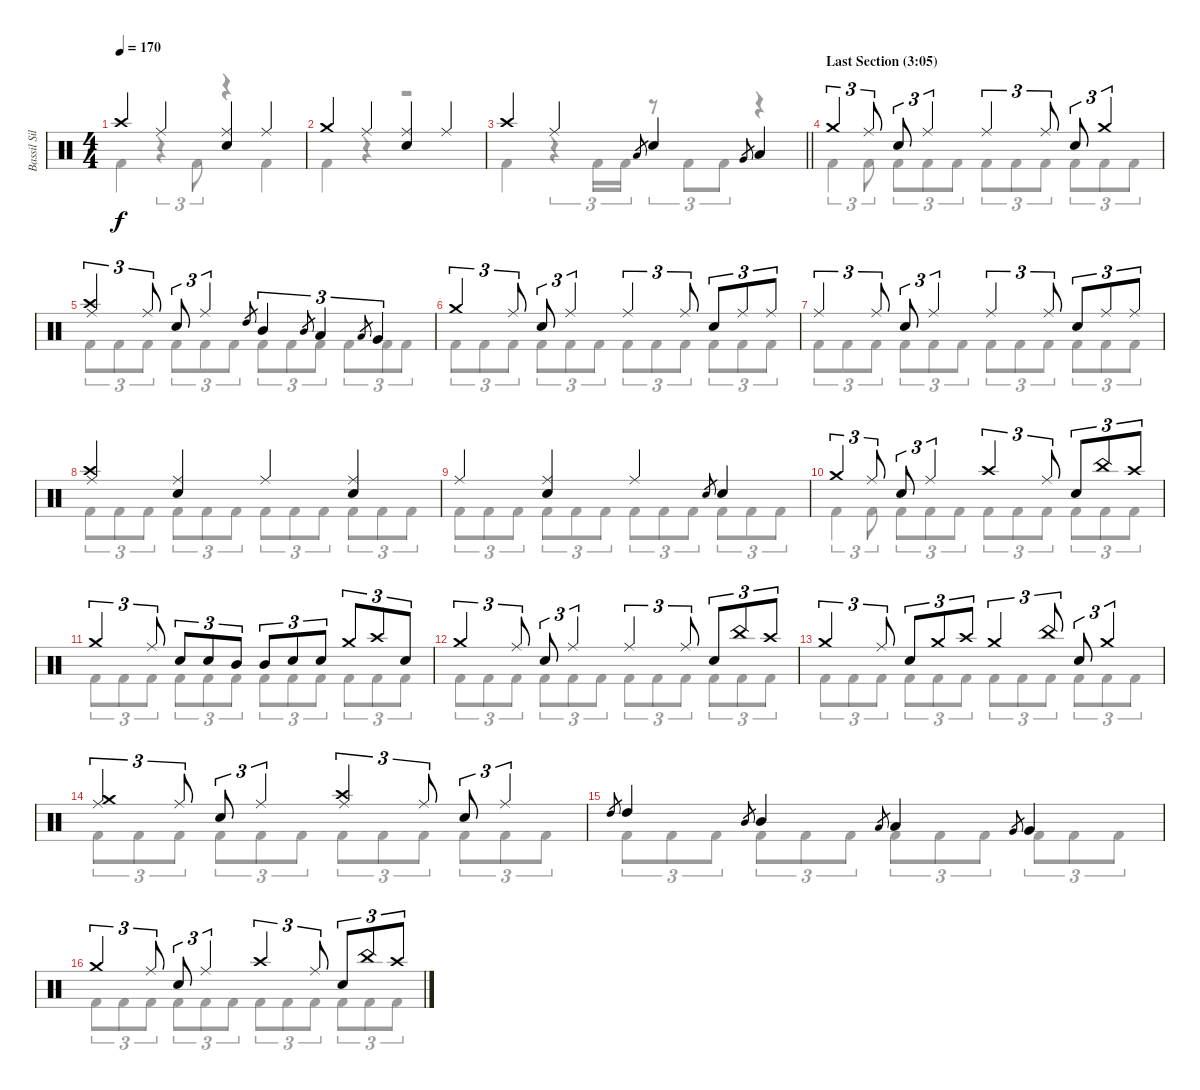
\track ("Bassil Silver-Hajo" "Bassil Sil") {instrument percussion}
\staff {score}
\articulation defaults
\voice
\ts (4 4)
\tempo 170
\clef neutral
\ks c "Crash high (hit)".4{dy f} "Ride (middle)".4
("Ride (middle)" "Snare (hit) 2").4 "Ride (middle)".4 |
"Crash medium (hit)".4 "Ride (middle)".4 ("Ride (middle)" "Snare (hit) 2").4 "Ride (middle)".4 |
\barLineRight lightlight "Crash high (hit)".4 "Ride (middle)".4 "Low Tom (hit)".8{gr} "Snare (hit) 2".4 "Very Low Tom (hit)".8{gr} "Low Floor Tom (hit)".4
|
\section ("" "Last Section (3:05)")
"Crash medium (hit)".4{tu (3 2)} "Ride (middle)".8{tu (3 2)} "Snare (hit) 2".8{tu (3 2)} "Ride (middle)".4{tu (3 2)} "Ride (middle)".4{tu (3 2)} "Ride (middle)".8{tu (3 2)} "Snare (hit) 2".8{tu (3 2)} "Crash medium (hit)".4{tu (3 2)} |
("Crash high (hit)" "Ride (middle)").4{tu (3 2)} "Ride (middle)".8{tu (3 2)} "Snare (hit) 2".8{tu (3 2)} "Ride (middle)".4{tu (3 2)} "High Tom (hit)".8{gr} "Mid Tom (hit)".4{tu (3 2)} "Mid Tom (hit)".8{gr} "Low Tom (hit)".4{tu (3 2)} "Low Tom (hit)".8{gr} "Very Low Tom (hit)".4{tu (3 2)} |
"Crash medium (hit)".4{tu (3 2)} "Ride (middle)".8{tu (3 2)} "Snare (hit) 2".8{tu (3 2)} "Ride (middle)".4{tu (3 2)} "Ride (middle)".4{tu (3 2)} "Ride (middle)".8{tu (3 2)} "Snare (hit) 2".8{tu (3 2)} "Ride (middle)".8{tu (3 2)} "Ride (middle)".8{tu (3 2)} |
"Ride (middle)".4{tu (3 2)} "Ride (middle)".8{tu (3 2)} "Snare (hit) 2".8{tu (3 2)} "Ride (middle)".4{tu (3 2)} "Ride (middle)".4{tu (3 2)} "Ride (middle)".8{tu (3 2)} "Snare (hit) 2".8{tu (3 2)} "Ride (middle)".8{tu (3 2)} "Ride (middle)".8{tu (3 2)} |
("Crash high (hit)" "Ride (middle)").4 ("Ride (middle)" "Snare (hit) 2").4 "Ride (middle)".4 ("Ride (middle)" "Snare (hit) 2").4 |
"Ride (middle)".4 ("Ride (middle)" "Snare (hit) 2").4 "Ride (middle)".4 "Snare (hit) 2".8{gr} "Snare (hit) 2".4 |
"Crash medium (hit)".4{tu (3 2)} "Ride (middle)".8{tu (3 2)} "Snare (hit) 2".8{tu (3 2)} "Ride (middle)".4{tu (3 2)} "Crash high (hit)".4{tu (3 2)} "Ride (middle)".8{tu (3 2)} "Snare (hit) 2".8{tu (3 2)} "China (hit)".8{tu (3 2)} "Crash high (hit)".8{tu (3 2)} |
"Crash medium (hit)".4{tu (3 2)} "Ride (middle)".8{tu (3 2)} "Snare (hit) 2".8{tu (3 2)} "Snare (hit) 2".8{tu (3 2)} "Mid Tom (hit)".8{tu (3 2)} "Mid Tom (hit)".8{tu (3 2)} "Snare (hit) 2".8{tu (3 2)} "Snare (hit) 2".8{tu (3 2)} "Crash medium (hit)".8{tu (3 2)} "Crash high (hit)".8{tu (3 2)} "Snare (hit) 2".8{tu (3 2)} |
"Crash medium (hit)".4{tu (3 2)} "Ride (middle)".8{tu (3 2)} "Snare (hit) 2".8{tu (3 2)} "Ride (middle)".4{tu (3 2)} "Ride (middle)".4{tu (3 2)} "Ride (middle)".8{tu (3 2)} "Snare (hit) 2".8{tu (3 2)} "China (hit)".8{tu (3 2)} "Crash high (hit)".8{tu (3 2)} |
"Crash medium (hit)".4{tu (3 2)} "Ride (middle)".8{tu (3 2)} "Snare (hit) 2".8{tu (3 2)} "Crash medium (hit)".8{tu (3 2)} "Crash high (hit)".8{tu (3 2)} "Crash medium (hit)".4{tu (3 2)} "China (hit)".8{tu (3 2)} "Snare (hit) 2".8{tu (3 2)} "Crash medium (hit)".4{tu (3 2)} |
("Crash medium (hit)" "Ride (middle)").4{tu (3 2)} "Ride (middle)".8{tu (3 2)} "Snare (hit) 2".8{tu (3 2)} "Ride (middle)".4{tu (3 2)} ("Crash high (hit)" "Ride (middle)").4{tu (3 2)} "Ride (middle)".8{tu (3 2)} "Snare (hit) 2".8{tu (3 2)} "Ride (middle)".4{tu (3 2)} |
"High Tom (hit)".8{gr} "High Tom (hit)".4 "Mid Tom (hit)".8{gr} "Mid Tom (hit)".4 "Low Tom (hit)".8{gr} "Low Tom (hit)".4 "Very Low Tom (hit)".8{gr} "Very Low Tom (hit)".4 |
"Crash medium (hit)".4{tu (3 2)} "Ride (middle)".8{tu (3 2)} "Snare (hit) 2".8{tu (3 2)} "Ride (middle)".4{tu (3 2)} "Crash high (hit)".4{tu (3 2)} "Ride (middle)".8{tu (3 2)} "Snare (hit) 2".8{tu (3 2)} "China (hit)".8{tu (3 2)} "Crash high (hit)".8{tu (3 2)}
\voice
\clef neutral
\ottava regular
\simile none
\ks c "Kick (hit) 2".4{dy f}
r.4{tu (3 2)} "Kick (hit) 2".8{tu (3 2)} r.4 "Kick (hit) 2".4 |
"Kick (hit) 2".4 r.4 r.2 |
\barLineRight lightlight "Kick (hit) 2".4
r.4{tu (3 2)} "Kick (hit) 2".16{tu (3 2)} "Kick (hit) 2".16{tu (3 2)} r.8{tu (3 2)} "Kick (hit) 2".8{tu (3 2)} "Kick (hit) 2".8{tu (3 2)} r.4 |
"Kick (hit) 2".4{tu (3 2)} "Kick (hit) 2".8{tu (3 2)} "Kick (hit) 2".8{tu (3 2)} "Kick (hit) 2".8{tu (3 2)} "Kick (hit) 2".8{tu (3 2)} "Kick (hit) 2".8{tu (3 2)} "Kick (hit) 2".8{tu (3 2)} "Kick (hit) 2".8{tu (3 2)} "Kick (hit) 2".8{tu (3 2)} "Kick (hit) 2".8{tu (3 2)} "Kick (hit) 2".8{tu (3 2)} |
"Kick (hit) 2".8{tu (3 2)} "Kick (hit) 2".8{tu (3 2)} "Kick (hit) 2".8{tu (3 2)} "Kick (hit) 2".8{tu (3 2)} "Kick (hit) 2".8{tu (3 2)} "Kick (hit) 2".8{tu (3 2)} "Kick (hit) 2".8{tu (3 2)} "Kick (hit) 2".8{tu (3 2)} "Kick (hit) 2".8{tu (3 2)} "Kick (hit) 2".8{tu (3 2)} "Kick (hit) 2".8{tu (3 2)} "Kick (hit) 2".8{tu (3 2)} |
"Kick (hit) 2".8{tu (3 2)} "Kick (hit) 2".8{tu (3 2)} "Kick (hit) 2".8{tu (3 2)} "Kick (hit) 2".8{tu (3 2)} "Kick (hit) 2".8{tu (3 2)} "Kick (hit) 2".8{tu (3 2)} "Kick (hit) 2".8{tu (3 2)} "Kick (hit) 2".8{tu (3 2)} "Kick (hit) 2".8{tu (3 2)} "Kick (hit) 2".8{tu (3 2)} "Kick (hit) 2".8{tu (3 2)} "Kick (hit) 2".8{tu (3 2)} |
"Kick (hit) 2".8{tu (3 2)} "Kick (hit) 2".8{tu (3 2)} "Kick (hit) 2".8{tu (3 2)} "Kick (hit) 2".8{tu (3 2)} "Kick (hit) 2".8{tu (3 2)} "Kick (hit) 2".8{tu (3 2)} "Kick (hit) 2".8{tu (3 2)} "Kick (hit) 2".8{tu (3 2)} "Kick (hit) 2".8{tu (3 2)} "Kick (hit) 2".8{tu (3 2)} "Kick (hit) 2".8{tu (3 2)} "Kick (hit) 2".8{tu (3 2)} |
"Kick (hit) 2".8{tu (3 2)} "Kick (hit) 2".8{tu (3 2)} "Kick (hit) 2".8{tu (3 2)} "Kick (hit) 2".8{tu (3 2)} "Kick (hit) 2".8{tu (3 2)} "Kick (hit) 2".8{tu (3 2)} "Kick (hit) 2".8{tu (3 2)} "Kick (hit) 2".8{tu (3 2)} "Kick (hit) 2".8{tu (3 2)} "Kick (hit) 2".8{tu (3 2)} "Kick (hit) 2".8{tu (3 2)} "Kick (hit) 2".8{tu (3 2)} |
"Kick (hit) 2".8{tu (3 2)} "Kick (hit) 2".8{tu (3 2)} "Kick (hit) 2".8{tu (3 2)} "Kick (hit) 2".8{tu (3 2)} "Kick (hit) 2".8{tu (3 2)} "Kick (hit) 2".8{tu (3 2)} "Kick (hit) 2".8{tu (3 2)} "Kick (hit) 2".8{tu (3 2)} "Kick (hit) 2".8{tu (3 2)} "Kick (hit) 2".8{tu (3 2)} "Kick (hit) 2".8{tu (3 2)} "Kick (hit) 2".8{tu (3 2)} |
"Kick (hit) 2".4{tu (3 2)} "Kick (hit) 2".8{tu (3 2)} "Kick (hit) 2".8{tu (3 2)} "Kick (hit) 2".8{tu (3 2)} "Kick (hit) 2".8{tu (3 2)} "Kick (hit) 2".8{tu (3 2)} "Kick (hit) 2".8{tu (3 2)} "Kick (hit) 2".8{tu (3 2)} "Kick (hit) 2".8{tu (3 2)} "Kick (hit) 2".8{tu (3 2)} "Kick (hit) 2".8{tu (3 2)} |
"Kick (hit) 2".8{tu (3 2)} "Kick (hit) 2".8{tu (3 2)} "Kick (hit) 2".8{tu (3 2)} "Kick (hit) 2".8{tu (3 2)} "Kick (hit) 2".8{tu (3 2)} "Kick (hit) 2".8{tu (3 2)} "Kick (hit) 2".8{tu (3 2)} "Kick (hit) 2".8{tu (3 2)} "Kick (hit) 2".8{tu (3 2)} "Kick (hit) 2".8{tu (3 2)} "Kick (hit) 2".8{tu (3 2)} "Kick (hit) 2".8{tu (3 2)} |
"Kick (hit) 2".8{tu (3 2)} "Kick (hit) 2".8{tu (3 2)} "Kick (hit) 2".8{tu (3 2)} "Kick (hit) 2".8{tu (3 2)} "Kick (hit) 2".8{tu (3 2)} "Kick (hit) 2".8{tu (3 2)} "Kick (hit) 2".8{tu (3 2)} "Kick (hit) 2".8{tu (3 2)} "Kick (hit) 2".8{tu (3 2)} "Kick (hit) 2".8{tu (3 2)} "Kick (hit) 2".8{tu (3 2)} "Kick (hit) 2".8{tu (3 2)} |
"Kick (hit) 2".8{tu (3 2)} "Kick (hit) 2".8{tu (3 2)} "Kick (hit) 2".8{tu (3 2)} "Kick (hit) 2".8{tu (3 2)} "Kick (hit) 2".8{tu (3 2)} "Kick (hit) 2".8{tu (3 2)} "Kick (hit) 2".8{tu (3 2)} "Kick (hit) 2".8{tu (3 2)} "Kick (hit) 2".8{tu (3 2)} "Kick (hit) 2".8{tu (3 2)} "Kick (hit) 2".8{tu (3 2)} "Kick (hit) 2".8{tu (3 2)} |
"Kick (hit) 2".8{tu (3 2)} "Kick (hit) 2".8{tu (3 2)} "Kick (hit) 2".8{tu (3 2)} "Kick (hit) 2".8{tu (3 2)} "Kick (hit) 2".8{tu (3 2)} "Kick (hit) 2".8{tu (3 2)} "Kick (hit) 2".8{tu (3 2)} "Kick (hit) 2".8{tu (3 2)} "Kick (hit) 2".8{tu (3 2)} "Kick (hit) 2".8{tu (3 2)} "Kick (hit) 2".8{tu (3 2)} "Kick (hit) 2".8{tu (3 2)} |
"Kick (hit) 2".8{tu (3 2)} "Kick (hit) 2".8{tu (3 2)} "Kick (hit) 2".8{tu (3 2)} "Kick (hit) 2".8{tu (3 2)} "Kick (hit) 2".8{tu (3 2)} "Kick (hit) 2".8{tu (3 2)} "Kick (hit) 2".8{tu (3 2)} "Kick (hit) 2".8{tu (3 2)} "Kick (hit) 2".8{tu (3 2)} "Kick (hit) 2".8{tu (3 2)} "Kick (hit) 2".8{tu (3 2)} "Kick (hit) 2".8{tu (3 2)} |
"Kick (hit) 2".8{tu (3 2)} "Kick (hit) 2".8{tu (3 2)} "Kick (hit) 2".8{tu (3 2)} "Kick (hit) 2".8{tu (3 2)} "Kick (hit) 2".8{tu (3 2)} "Kick (hit) 2".8{tu (3 2)} "Kick (hit) 2".8{tu (3 2)} "Kick (hit) 2".8{tu (3 2)} "Kick (hit) 2".8{tu (3 2)} "Kick (hit) 2".8{tu (3 2)} "Kick (hit) 2".8{tu (3 2)} "Kick (hit) 2".8{tu (3 2)}
